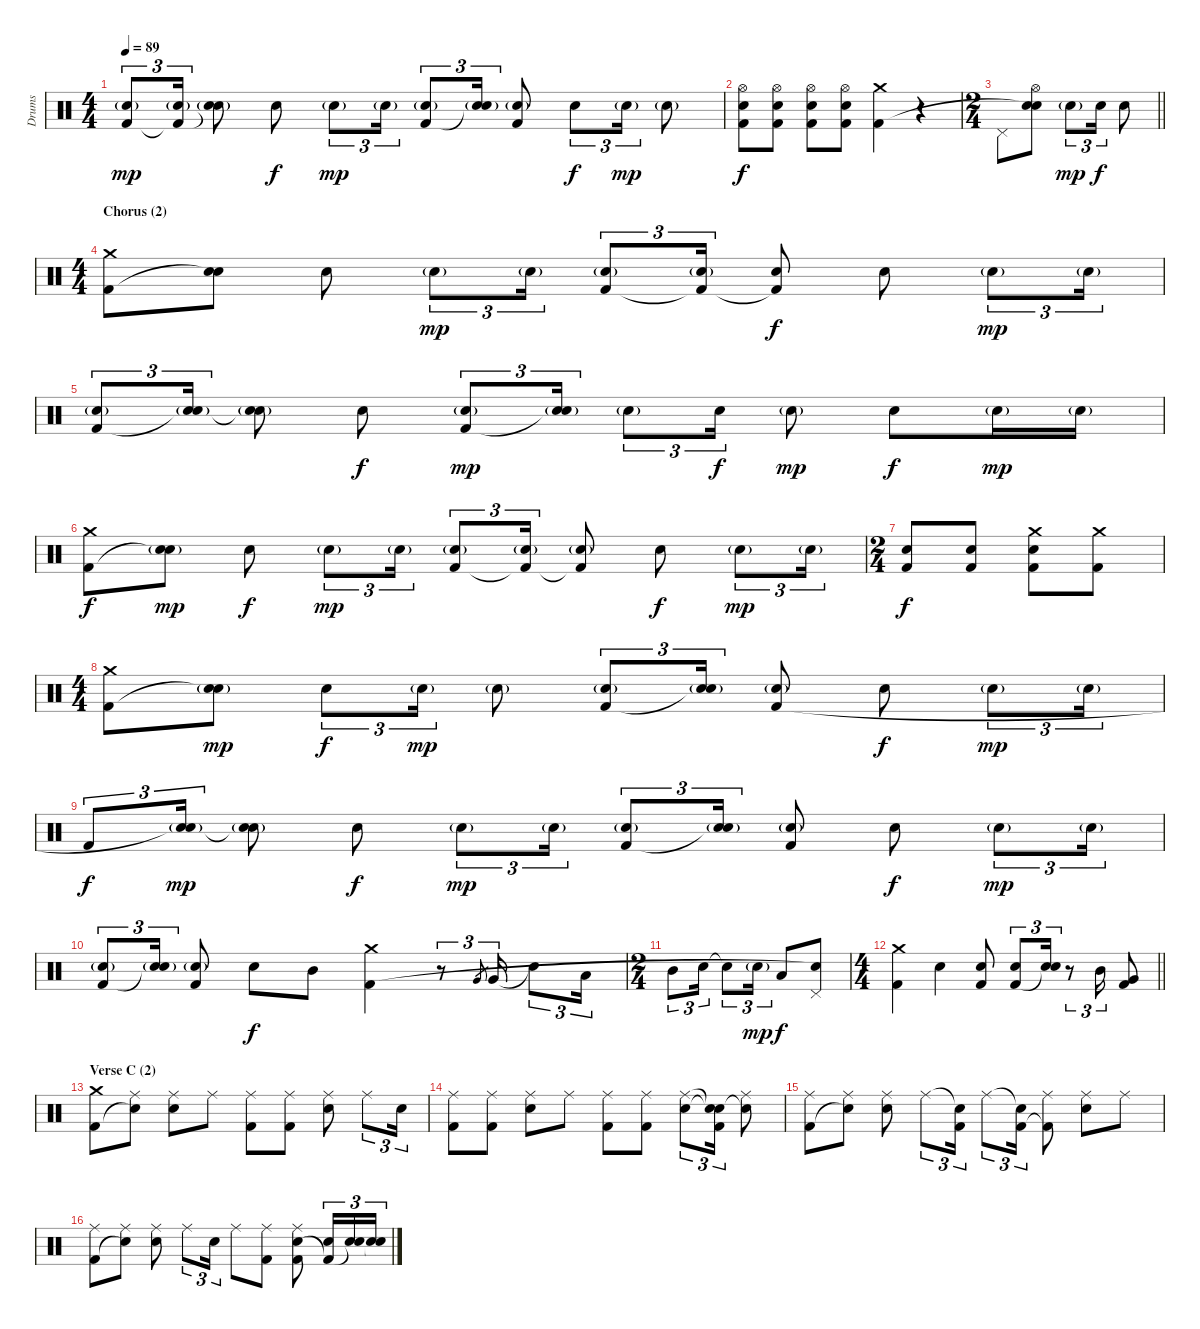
\track ("Drums" "Drums") {instrument percussion}
\staff {score}
\articulation defaults
\ts (4 4)
\tempo 89
\clef neutral
\ks c
("Electric Snare (hit)"{g} "Kick (hit) 2").8{tu (3 2) dy mp} ("Electric Snare (hit)"{g} "Kick (hit) 2"{t}).16{tu (3 2)} ("Electric Snare (hit)"{g} "Snare (hit)"{t}).8 "Electric Snare (hit)".8{dy f} "Electric Snare (hit)"{g}.8{tu (3 2) dy mp} "Electric Snare (hit)"{g}.16{tu (3 2)} ("Electric Snare (hit)"{g} "Kick (hit) 2").8{tu (3 2)} ("Electric Snare (hit)"{g} "Snare (hit)"{t}).16{tu (3 2)} ("Electric Snare (hit)"{g} "Kick (hit) 2").8 "Electric Snare (hit)".8{tu (3 2) dy f} "Electric Snare (hit)"{g}.16{tu (3 2) dy mp} "Electric Snare (hit)"{g}.8 |
("Hi-Hat (open)" "Electric Snare (hit)" "Kick (hit) 2").8{dy f} ("Hi-Hat (open)" "Electric Snare (hit)" "Kick (hit) 2").8 ("Hi-Hat (open)" "Electric Snare (hit)" "Kick (hit) 2").8 ("Hi-Hat (open)" "Electric Snare (hit)" "Kick (hit) 2").8 ("Crash medium (hit)" "Kick (hit) 2").4 r.4 |
\ts (2 4)
\barLineRight lightlight "Pedal Hi-Hat (hit)".8
("Hi-Hat (open)" "Snare (hit)"{t} "Electric Snare (hit)").8 "Electric Snare (hit)"{g}.8{tu (3 2) dy mp} "Electric Snare (hit)".16{tu (3 2) dy f} "Electric Snare (hit)".8 |
\ts (4 4)
\section ("" "Chorus (2)")
("Crash medium (hit)" "Kick (hit) 2").8 ("Electric Snare (hit)" "Snare (hit)"{t}).8 "Electric Snare (hit)".8 "Electric Snare (hit)"{g}.8{tu (3 2) dy mp} "Electric Snare (hit)"{g}.16{tu (3 2)} ("Electric Snare (hit)"{g} "Kick (hit) 2").8{tu (3 2)} ("Electric Snare (hit)"{g} "Kick (hit) 2"{t}).16{tu (3 2)} ("Electric Snare (hit)" "Kick (hit) 2"{t}).8{dy f} "Electric Snare (hit)".8 "Electric Snare (hit)"{g}.8{tu (3 2) dy mp} "Electric Snare (hit)"{g}.16{tu (3 2)} |
("Electric Snare (hit)"{g} "Kick (hit) 2").8{tu (3 2)} ("Electric Snare (hit)"{g} "Snare (hit)"{t}).16{tu (3 2)} ("Electric Snare (hit)"{g} "Snare (hit)"{t}).8 "Electric Snare (hit)".8{dy f} ("Electric Snare (hit)"{g} "Kick (hit) 2").8{tu (3 2) dy mp} ("Electric Snare (hit)"{g} "Snare (hit)"{t}).16{tu (3 2)} "Electric Snare (hit)"{g}.8{tu (3 2)} "Electric Snare (hit)".16{tu (3 2) dy f} "Electric Snare (hit)"{g}.8{dy mp} "Electric Snare (hit)".8{dy f} "Electric Snare (hit)"{g}.16{dy mp} "Electric Snare (hit)"{g}.16 |
("Crash medium (hit)" "Kick (hit) 2").8{dy f} ("Electric Snare (hit)"{g} "Snare (hit)"{t}).8{dy mp} "Electric Snare (hit)".8{dy f} "Electric Snare (hit)"{g}.8{tu (3 2) dy mp} "Electric Snare (hit)"{g}.16{tu (3 2)} ("Electric Snare (hit)"{g} "Kick (hit) 2").8{tu (3 2)} ("Electric Snare (hit)"{g} "Kick (hit) 2"{t}).16{tu (3 2)} ("Electric Snare (hit)"{g} "Kick (hit) 2"{t}).8 "Electric Snare (hit)".8{dy f} "Electric Snare (hit)"{g}.8{tu (3 2) dy mp} "Electric Snare (hit)"{g}.16{tu (3 2)} |
\ts (2 4)
("Electric Snare (hit)" "Kick (hit) 2").8{dy f} ("Electric Snare (hit)" "Kick (hit) 2").8 ("Crash medium (hit)" "Electric Snare (hit)" "Kick (hit) 2").8 ("Crash medium (hit)" "Kick (hit) 2").8 |
\ts (4 4)
("Crash medium (hit)" "Kick (hit) 2").8 ("Electric Snare (hit)"{g} "Snare (hit)"{t}).8{dy mp} "Electric Snare (hit)".8{tu (3 2) dy f} "Electric Snare (hit)"{g}.16{tu (3 2) dy mp} "Electric Snare (hit)"{g}.8 ("Electric Snare (hit)"{g} "Kick (hit) 2").8{tu (3 2)} ("Electric Snare (hit)"{g} "Snare (hit)"{t}).16{tu (3 2)} ("Electric Snare (hit)"{g} "Kick (hit) 2").8 "Electric Snare (hit)".8{dy f} "Electric Snare (hit)"{g}.8{tu (3 2) dy mp} "Electric Snare (hit)"{g}.16{tu (3 2)} |
"Kick (hit) 2".8{tu (3 2) dy f} ("Electric Snare (hit)"{g} "Snare (hit)"{t}).16{tu (3 2) dy mp} ("Electric Snare (hit)"{g} "Snare (hit)"{t}).8 "Electric Snare (hit)".8{dy f} "Electric Snare (hit)"{g}.8{tu (3 2) dy mp} "Electric Snare (hit)"{g}.16{tu (3 2)} ("Electric Snare (hit)"{g} "Kick (hit) 2").8{tu (3 2)} ("Electric Snare (hit)"{g} "Snare (hit)"{t}).16{tu (3 2)} ("Electric Snare (hit)"{g} "Kick (hit) 2").8 "Electric Snare (hit)".8{dy f} "Electric Snare (hit)"{g}.8{tu (3 2) dy mp} "Electric Snare (hit)"{g}.16{tu (3 2)} |
("Electric Snare (hit)"{g} "Kick (hit) 2").8{tu (3 2)} ("Electric Snare (hit)"{g} "Snare (hit)"{t}).16{tu (3 2)} ("Electric Snare (hit)"{g} "Kick (hit) 2").8 "Electric Snare (hit)".8{dy f} "Mid Tom (hit)".8 ("Crash medium (hit)" "Kick (hit) 2").4 r.8{tu (3 2)} "Very Low Tom (hit)".8{gr} "Very Low Tom (hit)".16{tu (3 2)} "Snare (hit)"{t}.8{tu (3 2)} "Low Tom (hit)".16{tu (3 2)} |
\ts (2 4)
"Mid Tom (hit)".8{tu (3 2)} "Electric Snare (hit)".16{tu (3 2)} "Snare (hit)"{t}.8{tu (3 2)} "Electric Snare (hit)"{g}.16{tu (3 2) dy mp} "Low Floor Tom (hit)".8{dy f} ("Pedal Hi-Hat (hit)" "Snare (hit)"{t}).8 |
\ts (4 4)
\barLineRight lightlight
("Crash medium (hit)" "Kick (hit) 2").4 "Electric Snare (hit)".4 ("Electric Snare (hit)" "Kick (hit) 2").8 ("Electric Snare (hit)" "Kick (hit) 2").8{tu (3 2)} ("Electric Snare (hit)" "Snare (hit)"{t}).16{tu (3 2)} r.8{tu (3 2)} "Mid Tom (hit)".16{tu (3 2)} ("Very Low Tom (hit)" "Kick (hit) 2").8 |
\section ("" "Verse C (2)")
("Crash medium (hit)" "Kick (hit) 2").8 ("Ride (middle)" "Snare (hit)"{t}).8 ("Ride (middle)" "Electric Snare (hit)").8 "Ride (middle)".8 ("Ride (middle)" "Kick (hit) 2").8 ("Ride (middle)" "Kick (hit) 2").8 ("Ride (middle)" "Electric Snare (hit)").8 "Ride (middle)".8{tu (3 2)} "Electric Snare (hit)".16{tu (3 2)} |
("Ride (middle)" "Kick (hit) 2").8 ("Ride (middle)" "Kick (hit) 2").8 ("Ride (middle)" "Electric Snare (hit)").8 "Ride (middle)".8 ("Ride (middle)" "Kick (hit) 2").8 ("Ride (middle)" "Kick (hit) 2").8 ("Ride (middle)" "Electric Snare (hit)").8{tu (3 2)} ("Snare (hit)"{t} "Snare (hit)"{t} "Kick (hit) 2").16{tu (3 2)} ("Ride (middle)" "Snare (hit)"{t}).8 |
("Ride (middle)" "Kick (hit) 2").8 ("Ride (middle)" "Snare (hit)"{t}).8 ("Ride (middle)" "Electric Snare (hit)").8 "Ride (middle)".8{tu (3 2)} ("Snare (hit)"{t} "Kick (hit) 2").16{tu (3 2)} "Ride (middle)".8{tu (3 2)} ("Snare (hit)"{t} "Kick (hit) 2").16{tu (3 2)} ("Ride (middle)" "Kick (hit) 2"{t}).8 ("Ride (middle)" "Electric Snare (hit)").8 "Ride (middle)".8 |
("Ride (middle)" "Kick (hit) 2").8 ("Ride (middle)" "Snare (hit)"{t}).8 ("Ride (middle)" "Electric Snare (hit)").8 "Ride (middle)".8{tu (3 2)} "Electric Snare (hit)".16{tu (3 2)} "Ride (middle)".8 ("Ride (middle)" "Kick (hit) 2").8 ("Ride (middle)" "Electric Snare (hit)" "Kick (hit) 2").8 ("Electric Snare (hit)" "Kick (hit) 2"{t}).16{tu (3 2)} ("Electric Snare (hit)" "Snare (hit)"{t}).16{tu (3 2)} ("Electric Snare (hit)" "Snare (hit)"{t}).16{tu (3 2)}
